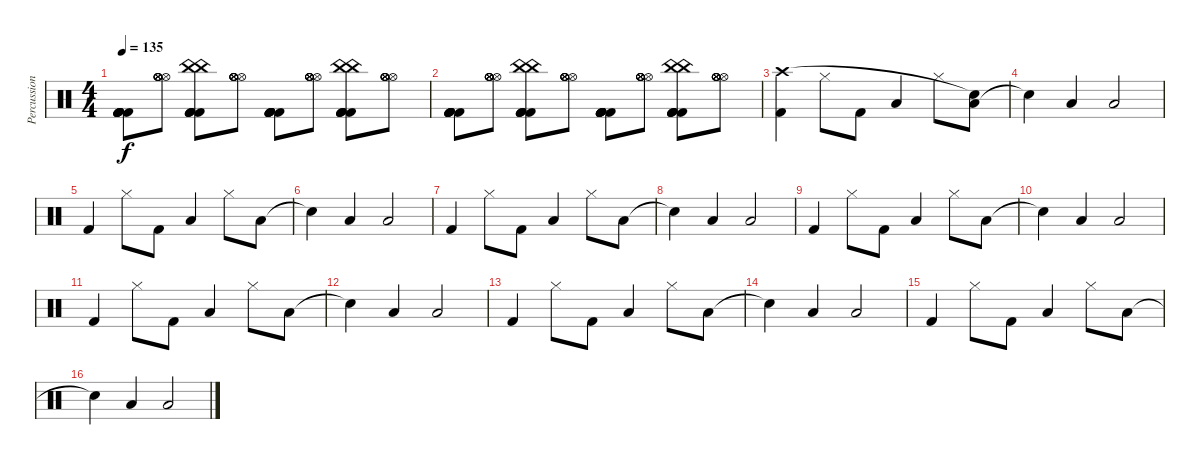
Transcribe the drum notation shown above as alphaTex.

\track ("Percussion" "Percussion") {instrument percussion}
\staff {score}
\articulation defaults
\ts (4 4)
\tempo 135
\clef neutral
\ks c
("Kick (hit) 2" "Kick (hit) 2" "Kick (hit) 2" "Kick (hit) 2" "Kick (hit) 2" "Kick (hit) 2").8{dy f} ("Hi-Hat (open)" "Hi-Hat (open)" "Hi-Hat (open)" "Hi-Hat (open)" "Hi-Hat (open)" "Hi-Hat (open)").8 ("China (hit)" "China (hit)" "Kick (hit) 2" "Kick (hit) 2" "Kick (hit) 2" "Kick (hit) 2").8 ("Hi-Hat (open)" "Hi-Hat (open)" "Hi-Hat (open)" "Hi-Hat (open)" "Hi-Hat (open)" "Hi-Hat (open)").8 ("Kick (hit) 2" "Kick (hit) 2" "Kick (hit) 2" "Kick (hit) 2" "Kick (hit) 2" "Kick (hit) 2").8 ("Hi-Hat (open)" "Hi-Hat (open)" "Hi-Hat (open)" "Hi-Hat (open)" "Hi-Hat (open)" "Hi-Hat (open)").8 ("China (hit)" "China (hit)" "Kick (hit) 2" "Kick (hit) 2" "Kick (hit) 2" "Kick (hit) 2").8 ("Hi-Hat (open)" "Hi-Hat (open)" "Hi-Hat (open)" "Hi-Hat (open)" "Hi-Hat (open)" "Hi-Hat (open)").8 |
("Kick (hit) 2" "Kick (hit) 2" "Kick (hit) 2" "Kick (hit) 2" "Kick (hit) 2" "Kick (hit) 2").8 ("Hi-Hat (open)" "Hi-Hat (open)" "Hi-Hat (open)" "Hi-Hat (open)" "Hi-Hat (open)" "Hi-Hat (open)").8 ("China (hit)" "China (hit)" "Kick (hit) 2" "Kick (hit) 2" "Kick (hit) 2" "Kick (hit) 2").8 ("Hi-Hat (open)" "Hi-Hat (open)" "Hi-Hat (open)" "Hi-Hat (open)" "Hi-Hat (open)" "Hi-Hat (open)").8 ("Kick (hit) 2" "Kick (hit) 2" "Kick (hit) 2" "Kick (hit) 2" "Kick (hit) 2" "Kick (hit) 2").8 ("Hi-Hat (open)" "Hi-Hat (open)" "Hi-Hat (open)" "Hi-Hat (open)" "Hi-Hat (open)" "Hi-Hat (open)").8 ("China (hit)" "China (hit)" "Kick (hit) 2" "Kick (hit) 2" "Kick (hit) 2" "Kick (hit) 2").8 ("Hi-Hat (open)" "Hi-Hat (open)" "Hi-Hat (open)" "Hi-Hat (open)" "Hi-Hat (open)" "Hi-Hat (open)").8 |
("Kick (hit) 2" "Crash high (hit)").4{volume 16} "Hi-Hat (closed)".8 "Kick (hit) 2".8 "Low Tom (hit)".4 "Hi-Hat (closed)".8 ("Low Floor Tom (hit)" "Snare (hit)"{t}).8 |
"Snare (hit)"{t}.4 "Low Floor Tom (hit)".4 "Low Tom (hit)".2 |
"Kick (hit) 2".4 "Hi-Hat (closed)".8 "Kick (hit) 2".8 "Low Tom (hit)".4 "Hi-Hat (closed)".8 "Low Floor Tom (hit)".8 |
"Snare (hit)"{t}.4 "Low Floor Tom (hit)".4 "Low Tom (hit)".2 |
"Kick (hit) 2".4 "Hi-Hat (closed)".8 "Kick (hit) 2".8 "Low Tom (hit)".4 "Hi-Hat (closed)".8 "Low Floor Tom (hit)".8 |
"Snare (hit)"{t}.4 "Low Floor Tom (hit)".4 "Low Tom (hit)".2 |
"Kick (hit) 2".4 "Hi-Hat (closed)".8 "Kick (hit) 2".8 "Low Tom (hit)".4 "Hi-Hat (closed)".8 "Low Floor Tom (hit)".8 |
"Snare (hit)"{t}.4 "Low Floor Tom (hit)".4 "Low Tom (hit)".2 |
"Kick (hit) 2".4 "Hi-Hat (closed)".8 "Kick (hit) 2".8 "Low Tom (hit)".4 "Hi-Hat (closed)".8 "Low Floor Tom (hit)".8 |
"Snare (hit)"{t}.4 "Low Floor Tom (hit)".4 "Low Tom (hit)".2 |
"Kick (hit) 2".4 "Hi-Hat (closed)".8 "Kick (hit) 2".8 "Low Tom (hit)".4 "Hi-Hat (closed)".8 "Low Floor Tom (hit)".8 |
"Snare (hit)"{t}.4 "Low Floor Tom (hit)".4 "Low Tom (hit)".2 |
"Kick (hit) 2".4 "Hi-Hat (closed)".8 "Kick (hit) 2".8 "Low Tom (hit)".4 "Hi-Hat (closed)".8 "Low Floor Tom (hit)".8 |
"Snare (hit)"{t}.4 "Low Floor Tom (hit)".4 "Low Tom (hit)".2
